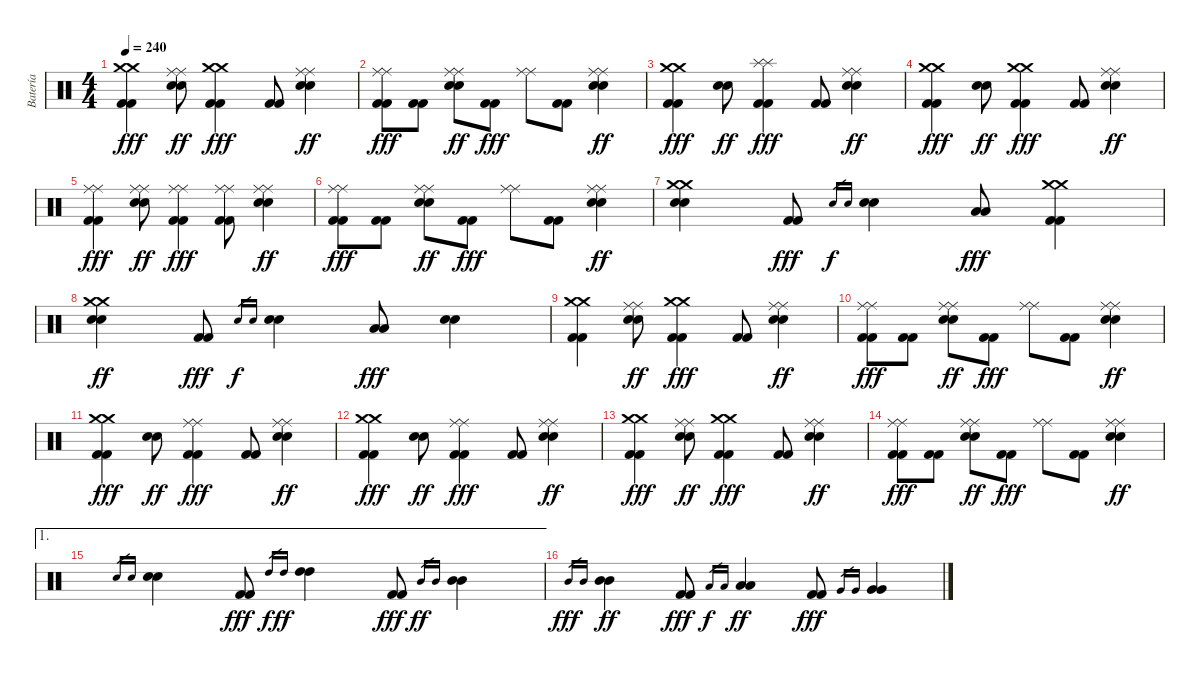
\track ("Batería" "Batería") {instrument percussion}
\staff {score}
\articulation defaults
\ts (4 4)
\tempo 240
\clef neutral
\ks c
("Crash medium (hit)" "Crash medium (hit)" "Kick (hit) 2" "Kick (hit) 2").4{dy fff} ("Ride (middle)" "Ride (middle)" "Electric Snare (hit)" "Electric Snare (hit)").8{dy ff} ("Crash medium (hit)" "Crash medium (hit)" "Kick (hit) 2" "Kick (hit) 2").4{dy fff} ("Kick (hit) 2" "Kick (hit) 2").8 ("Ride (middle)" "Ride (middle)" "Electric Snare (hit)" "Electric Snare (hit)").4{dy ff} |
("Ride (middle)" "Ride (middle)" "Kick (hit) 2" "Kick (hit) 2").8{dy fff} ("Kick (hit) 2" "Kick (hit) 2").8 ("Ride (middle)" "Ride (middle)" "Electric Snare (hit)" "Electric Snare (hit)").8{dy ff} ("Kick (hit) 2" "Kick (hit) 2").8{dy fff} ("Ride (middle)" "Ride (middle)").8 ("Kick (hit) 2" "Kick (hit) 2").8 ("Ride (middle)" "Ride (middle)" "Electric Snare (hit)" "Electric Snare (hit)").4{dy ff} |
("Crash medium (hit)" "Crash medium (hit)" "Kick (hit) 2" "Kick (hit) 2").4{dy fff} ("Electric Snare (hit)" "Electric Snare (hit)").8{dy ff} ("Splash (hit)" "Splash (hit)" "Kick (hit) 2" "Kick (hit) 2").4{dy fff} ("Kick (hit) 2" "Kick (hit) 2").8 ("Ride (middle)" "Ride (middle)" "Electric Snare (hit)" "Electric Snare (hit)").4{dy ff} |
("Crash medium (hit)" "Crash medium (hit)" "Kick (hit) 2" "Kick (hit) 2").4{dy fff} ("Electric Snare (hit)" "Electric Snare (hit)").8{dy ff} ("Crash medium (hit)" "Crash medium (hit)" "Kick (hit) 2" "Kick (hit) 2").4{dy fff} ("Kick (hit) 2" "Kick (hit) 2").8 ("Ride (middle)" "Ride (middle)" "Electric Snare (hit)" "Electric Snare (hit)").4{dy ff} |
("Ride (middle)" "Ride (middle)" "Kick (hit) 2" "Kick (hit) 2").4{dy fff} ("Ride (middle)" "Ride (middle)" "Electric Snare (hit)" "Electric Snare (hit)").8{dy ff} ("Ride (middle)" "Ride (middle)" "Kick (hit) 2" "Kick (hit) 2").4{dy fff} ("Ride (middle)" "Ride (middle)" "Kick (hit) 2" "Kick (hit) 2").8 ("Ride (middle)" "Ride (middle)" "Electric Snare (hit)" "Electric Snare (hit)").4{dy ff} |
("Ride (middle)" "Ride (middle)" "Kick (hit) 2" "Kick (hit) 2").8{dy fff} ("Kick (hit) 2" "Kick (hit) 2").8 ("Ride (middle)" "Ride (middle)" "Electric Snare (hit)" "Electric Snare (hit)").8{dy ff} ("Kick (hit) 2" "Kick (hit) 2").8{dy fff} ("Ride (middle)" "Ride (middle)").8 ("Kick (hit) 2" "Kick (hit) 2").8 ("Ride (middle)" "Ride (middle)" "Electric Snare (hit)" "Electric Snare (hit)").4{dy ff} |
("Crash medium (hit)" "Crash medium (hit)" "Electric Snare (hit)" "Electric Snare (hit)").4 ("Kick (hit) 2" "Kick (hit) 2").8{dy fff} "Electric Snare (hit)".16{gr dy f} "Electric Snare (hit)".16{gr} ("Electric Snare (hit)" "Electric Snare (hit)").4 ("Low Tom (hit)" "Low Tom (hit)").8{dy fff} ("Crash medium (hit)" "Crash medium (hit)" "Kick (hit) 2" "Kick (hit) 2").4 |
("Crash medium (hit)" "Crash medium (hit)" "Electric Snare (hit)" "Electric Snare (hit)").4{dy ff} ("Kick (hit) 2" "Kick (hit) 2").8{dy fff} "Electric Snare (hit)".16{gr dy f} "Electric Snare (hit)".16{gr} ("Electric Snare (hit)" "Electric Snare (hit)").4 ("Low Tom (hit)" "Low Tom (hit)").8{dy fff} ("Electric Snare (hit)" "Electric Snare (hit)").4 |
("Crash medium (hit)" "Crash medium (hit)" "Kick (hit) 2" "Kick (hit) 2").4 ("Ride (middle)" "Ride (middle)" "Electric Snare (hit)" "Electric Snare (hit)").8{dy ff} ("Crash medium (hit)" "Crash medium (hit)" "Kick (hit) 2" "Kick (hit) 2").4{dy fff} ("Kick (hit) 2" "Kick (hit) 2").8 ("Ride (middle)" "Ride (middle)" "Electric Snare (hit)" "Electric Snare (hit)").4{dy ff} |
("Ride (middle)" "Ride (middle)" "Kick (hit) 2" "Kick (hit) 2").8{dy fff} ("Kick (hit) 2" "Kick (hit) 2").8 ("Ride (middle)" "Ride (middle)" "Electric Snare (hit)" "Electric Snare (hit)").8{dy ff} ("Kick (hit) 2" "Kick (hit) 2").8{dy fff} ("Ride (middle)" "Ride (middle)").8 ("Kick (hit) 2" "Kick (hit) 2").8 ("Ride (middle)" "Ride (middle)" "Electric Snare (hit)" "Electric Snare (hit)").4{dy ff} |
("Crash medium (hit)" "Crash medium (hit)" "Kick (hit) 2" "Kick (hit) 2").4{dy fff} ("Electric Snare (hit)" "Electric Snare (hit)").8{dy ff} ("Ride (middle)" "Ride (middle)" "Kick (hit) 2" "Kick (hit) 2").4{dy fff} ("Kick (hit) 2" "Kick (hit) 2").8 ("Ride (middle)" "Ride (middle)" "Electric Snare (hit)" "Electric Snare (hit)").4{dy ff} |
("Crash medium (hit)" "Crash medium (hit)" "Kick (hit) 2" "Kick (hit) 2").4{dy fff} ("Electric Snare (hit)" "Electric Snare (hit)").8{dy ff} ("Ride (middle)" "Ride (middle)" "Kick (hit) 2" "Kick (hit) 2").4{dy fff} ("Kick (hit) 2" "Kick (hit) 2").8 ("Ride (middle)" "Ride (middle)" "Electric Snare (hit)" "Electric Snare (hit)").4{dy ff} |
("Crash medium (hit)" "Crash medium (hit)" "Kick (hit) 2" "Kick (hit) 2").4{dy fff} ("Ride (middle)" "Ride (middle)" "Electric Snare (hit)" "Electric Snare (hit)").8{dy ff} ("Crash medium (hit)" "Crash medium (hit)" "Kick (hit) 2" "Kick (hit) 2").4{dy fff} ("Kick (hit) 2" "Kick (hit) 2").8 ("Ride (middle)" "Ride (middle)" "Electric Snare (hit)" "Electric Snare (hit)").4{dy ff} |
("Ride (middle)" "Ride (middle)" "Kick (hit) 2" "Kick (hit) 2").8{dy fff} ("Kick (hit) 2" "Kick (hit) 2").8 ("Ride (middle)" "Ride (middle)" "Electric Snare (hit)" "Electric Snare (hit)").8{dy ff} ("Kick (hit) 2" "Kick (hit) 2").8{dy fff} ("Ride (middle)" "Ride (middle)").8 ("Kick (hit) 2" "Kick (hit) 2").8 ("Ride (middle)" "Ride (middle)" "Electric Snare (hit)" "Electric Snare (hit)").4{dy ff} |
\ae 1 "Electric Snare (hit)".16{gr} "Electric Snare (hit)".16{gr}
("Electric Snare (hit)" "Electric Snare (hit)").4 ("Kick (hit) 2" "Kick (hit) 2").8{dy fff} "High Tom (hit)".16{gr dy f} "High Tom (hit)".16{gr dy ff} ("High Tom (hit)" "High Tom (hit)").4 ("Kick (hit) 2" "Kick (hit) 2").8{dy fff} "Mid Tom (hit)".16{gr dy ff} "Mid Tom (hit)".16{gr} ("Mid Tom (hit)" "Mid Tom (hit)").4 |
"Mid Tom (hit)".16{gr dy fff} "Mid Tom (hit)".16{gr} ("Mid Tom (hit)" "Mid Tom (hit)").4{dy ff} ("Kick (hit) 2" "Kick (hit) 2").8{dy fff} "Low Tom (hit)".16{gr dy f} "Low Tom (hit)".16{gr} ("Low Tom (hit)" "Low Tom (hit)").4{dy ff} ("Kick (hit) 2" "Kick (hit) 2").8{dy fff} "Very Low Tom (hit)".16{gr} "Very Low Tom (hit)".16{gr} ("Very Low Tom (hit)" "Very Low Tom (hit)").4
